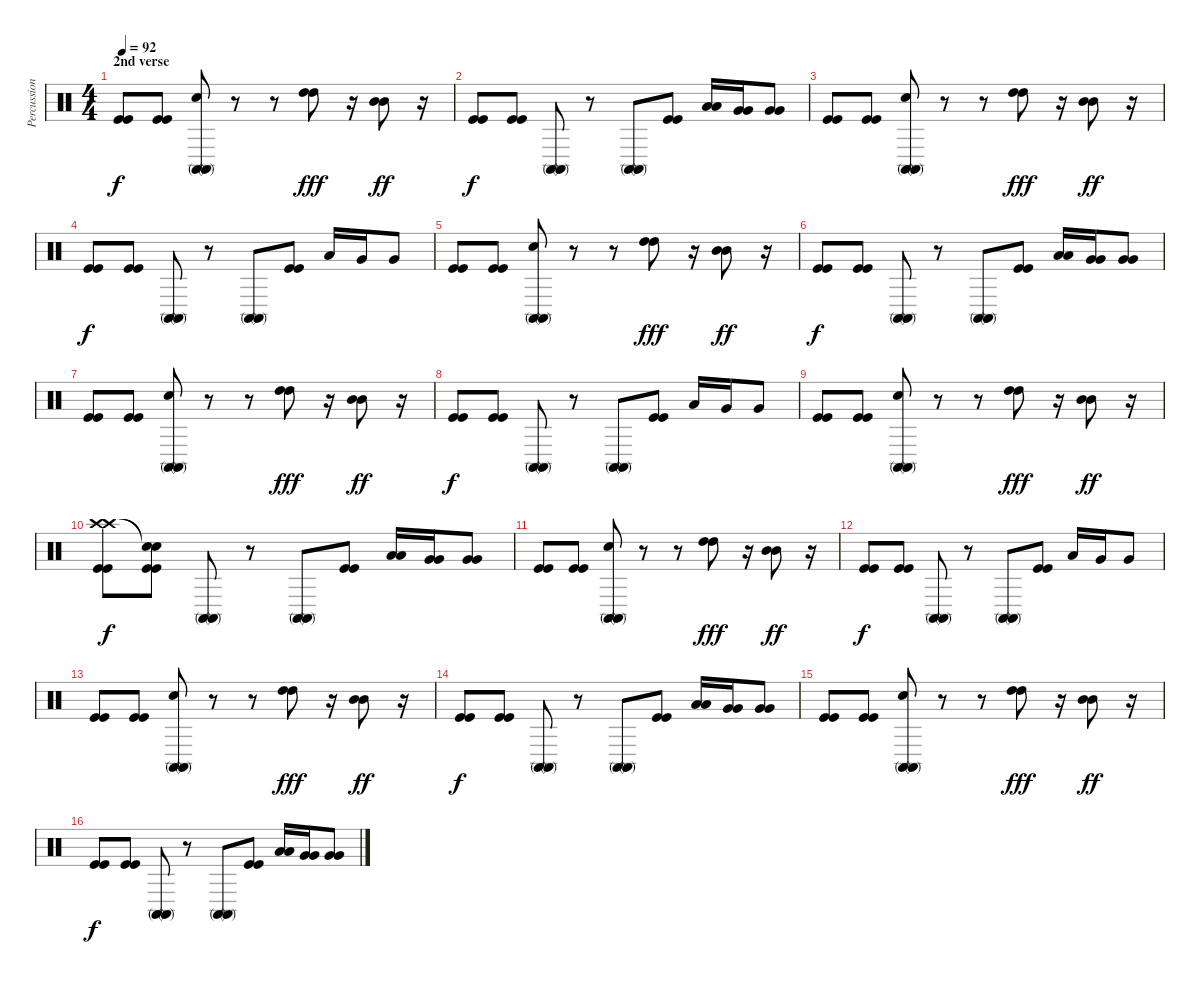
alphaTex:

\track ("Percussion" "Percussion") {instrument percussion}
\staff {score}
\articulation defaults
\ts (4 4)
\section ("" "2nd verse")
\tempo 92
\clef neutral
\ks c
("Kick (hit)" "Kick (hit)").8{dy f} ("Kick (hit)" "Kick (hit)").8 ("Conga high (mute)" "Conga high (mute)" "Electric Snare (hit)").8 r.8 r.8 ("High Tom (hit)" "High Tom (hit)").8{dy fff} r.16 ("Mid Tom (hit)" "Mid Tom (hit)").8{dy ff} r.16 |
("Kick (hit)" "Kick (hit)").8{dy f} ("Kick (hit)" "Kick (hit)").8 ("Conga high (mute)" "Conga high (mute)").8 r.8 ("Conga high (mute)" "Conga high (mute)").8 ("Kick (hit)" "Kick (hit)").8 ("Low Tom (hit)" "Low Tom (hit)").16 ("Very Low Tom (hit)" "Very Low Tom (hit)").16 ("Very Low Tom (hit)" "Very Low Tom (hit)").8 |
("Kick (hit)" "Kick (hit)").8 ("Kick (hit)" "Kick (hit)").8 ("Conga high (mute)" "Conga high (mute)" "Electric Snare (hit)").8 r.8 r.8 ("High Tom (hit)" "High Tom (hit)").8{dy fff} r.16 ("Mid Tom (hit)" "Mid Tom (hit)").8{dy ff} r.16 |
("Kick (hit)" "Kick (hit)").8{dy f} ("Kick (hit)" "Kick (hit)").8 ("Conga high (mute)" "Conga high (mute)").8 r.8 ("Conga high (mute)" "Conga high (mute)").8 ("Kick (hit)" "Kick (hit)").8 "Low Tom (hit)".16 "Very Low Tom (hit)".16 "Very Low Tom (hit)".8 |
("Kick (hit)" "Kick (hit)").8 ("Kick (hit)" "Kick (hit)").8 ("Conga high (mute)" "Conga high (mute)" "Electric Snare (hit)").8 r.8 r.8 ("High Tom (hit)" "High Tom (hit)").8{dy fff} r.16 ("Mid Tom (hit)" "Mid Tom (hit)").8{dy ff} r.16 |
("Kick (hit)" "Kick (hit)").8{dy f} ("Kick (hit)" "Kick (hit)").8 ("Conga high (mute)" "Conga high (mute)").8 r.8 ("Conga high (mute)" "Conga high (mute)").8 ("Kick (hit)" "Kick (hit)").8 ("Low Tom (hit)" "Low Tom (hit)").16 ("Very Low Tom (hit)" "Very Low Tom (hit)").16 ("Very Low Tom (hit)" "Very Low Tom (hit)").8 |
("Kick (hit)" "Kick (hit)").8 ("Kick (hit)" "Kick (hit)").8 ("Conga high (mute)" "Conga high (mute)" "Electric Snare (hit)").8 r.8 r.8 ("High Tom (hit)" "High Tom (hit)").8{dy fff} r.16 ("Mid Tom (hit)" "Mid Tom (hit)").8{dy ff} r.16 |
("Kick (hit)" "Kick (hit)").8{dy f} ("Kick (hit)" "Kick (hit)").8 ("Conga high (mute)" "Conga high (mute)").8 r.8 ("Conga high (mute)" "Conga high (mute)").8 ("Kick (hit)" "Kick (hit)").8 "Low Tom (hit)".16 "Very Low Tom (hit)".16 "Very Low Tom (hit)".8 |
("Kick (hit)" "Kick (hit)").8 ("Kick (hit)" "Kick (hit)").8 ("Conga high (mute)" "Conga high (mute)" "Electric Snare (hit)").8 r.8 r.8 ("High Tom (hit)" "High Tom (hit)").8{dy fff} r.16 ("Mid Tom (hit)" "Mid Tom (hit)").8{dy ff} r.16 |
("Crash high (hit)" "Crash high (hit)" "Kick (hit)" "Kick (hit)").8{dy f} ("Snare (hit)"{t} "Snare (hit)"{t} "Kick (hit)" "Kick (hit)").8 ("Conga high (mute)" "Conga high (mute)").8 r.8 ("Conga high (mute)" "Conga high (mute)").8 ("Kick (hit)" "Kick (hit)").8 ("Low Tom (hit)" "Low Tom (hit)").16 ("Very Low Tom (hit)" "Very Low Tom (hit)").16 ("Very Low Tom (hit)" "Very Low Tom (hit)").8 |
("Kick (hit)" "Kick (hit)").8 ("Kick (hit)" "Kick (hit)").8 ("Conga high (mute)" "Conga high (mute)" "Electric Snare (hit)").8 r.8 r.8 ("High Tom (hit)" "High Tom (hit)").8{dy fff} r.16 ("Mid Tom (hit)" "Mid Tom (hit)").8{dy ff} r.16 |
("Kick (hit)" "Kick (hit)").8{dy f} ("Kick (hit)" "Kick (hit)").8 ("Conga high (mute)" "Conga high (mute)").8 r.8 ("Conga high (mute)" "Conga high (mute)").8 ("Kick (hit)" "Kick (hit)").8 "Low Tom (hit)".16 "Very Low Tom (hit)".16 "Very Low Tom (hit)".8 |
("Kick (hit)" "Kick (hit)").8 ("Kick (hit)" "Kick (hit)").8 ("Conga high (mute)" "Conga high (mute)" "Electric Snare (hit)").8 r.8 r.8 ("High Tom (hit)" "High Tom (hit)").8{dy fff} r.16 ("Mid Tom (hit)" "Mid Tom (hit)").8{dy ff} r.16 |
("Kick (hit)" "Kick (hit)").8{dy f} ("Kick (hit)" "Kick (hit)").8 ("Conga high (mute)" "Conga high (mute)").8 r.8 ("Conga high (mute)" "Conga high (mute)").8 ("Kick (hit)" "Kick (hit)").8 ("Low Tom (hit)" "Low Tom (hit)").16 ("Very Low Tom (hit)" "Very Low Tom (hit)").16 ("Very Low Tom (hit)" "Very Low Tom (hit)").8 |
("Kick (hit)" "Kick (hit)").8 ("Kick (hit)" "Kick (hit)").8 ("Conga high (mute)" "Conga high (mute)" "Electric Snare (hit)").8 r.8 r.8 ("High Tom (hit)" "High Tom (hit)").8{dy fff} r.16 ("Mid Tom (hit)" "Mid Tom (hit)").8{dy ff} r.16 |
("Kick (hit)" "Kick (hit)").8{dy f} ("Kick (hit)" "Kick (hit)").8 ("Conga high (mute)" "Conga high (mute)").8 r.8 ("Conga high (mute)" "Conga high (mute)").8 ("Kick (hit)" "Kick (hit)").8 ("Low Tom (hit)" "Low Tom (hit)").16 ("Very Low Tom (hit)" "Very Low Tom (hit)").16 ("Very Low Tom (hit)" "Very Low Tom (hit)").8
